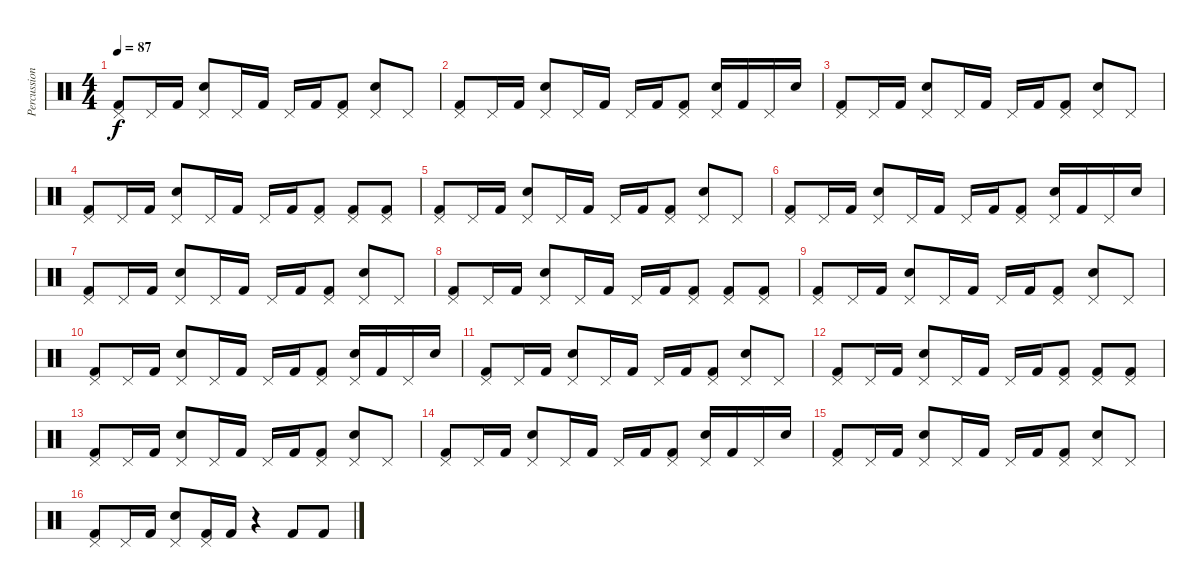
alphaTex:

\track ("Percussion" "Percussion") {instrument percussion}
\staff {score}
\articulation defaults
\ts (4 4)
\tempo 87
\clef neutral
\ks c
("Kick (hit) 2" "Pedal Hi-Hat (hit)").8{dy f} "Pedal Hi-Hat (hit)".16 "Kick (hit) 2".16 ("Snare (hit) 2" "Pedal Hi-Hat (hit)").8 "Pedal Hi-Hat (hit)".16 "Kick (hit) 2".16 "Pedal Hi-Hat (hit)".16 "Kick (hit) 2".16 ("Kick (hit) 2" "Pedal Hi-Hat (hit)").8 ("Snare (hit) 2" "Pedal Hi-Hat (hit)").8 "Pedal Hi-Hat (hit)".8 |
("Kick (hit) 2" "Pedal Hi-Hat (hit)").8 "Pedal Hi-Hat (hit)".16 "Kick (hit) 2".16 ("Snare (hit) 2" "Pedal Hi-Hat (hit)").8 "Pedal Hi-Hat (hit)".16 "Kick (hit) 2".16 "Pedal Hi-Hat (hit)".16 "Kick (hit) 2".16 ("Kick (hit) 2" "Pedal Hi-Hat (hit)").8 ("Snare (hit) 2" "Pedal Hi-Hat (hit)").16 "Kick (hit) 2".16 "Pedal Hi-Hat (hit)".16 "Snare (hit) 2".16 |
("Kick (hit) 2" "Pedal Hi-Hat (hit)").8 "Pedal Hi-Hat (hit)".16 "Kick (hit) 2".16 ("Snare (hit) 2" "Pedal Hi-Hat (hit)").8 "Pedal Hi-Hat (hit)".16 "Kick (hit) 2".16 "Pedal Hi-Hat (hit)".16 "Kick (hit) 2".16 ("Kick (hit) 2" "Pedal Hi-Hat (hit)").8 ("Snare (hit) 2" "Pedal Hi-Hat (hit)").8 "Pedal Hi-Hat (hit)".8 |
("Kick (hit) 2" "Pedal Hi-Hat (hit)").8 "Pedal Hi-Hat (hit)".16 "Kick (hit) 2".16 ("Snare (hit) 2" "Pedal Hi-Hat (hit)").8 "Pedal Hi-Hat (hit)".16 "Kick (hit) 2".16 "Pedal Hi-Hat (hit)".16 "Kick (hit) 2".16 ("Kick (hit) 2" "Pedal Hi-Hat (hit)").8 ("Kick (hit) 2" "Pedal Hi-Hat (hit)").8 ("Kick (hit) 2" "Pedal Hi-Hat (hit)").8 |
("Kick (hit) 2" "Pedal Hi-Hat (hit)").8 "Pedal Hi-Hat (hit)".16 "Kick (hit) 2".16 ("Snare (hit) 2" "Pedal Hi-Hat (hit)").8 "Pedal Hi-Hat (hit)".16 "Kick (hit) 2".16 "Pedal Hi-Hat (hit)".16 "Kick (hit) 2".16 ("Kick (hit) 2" "Pedal Hi-Hat (hit)").8 ("Snare (hit) 2" "Pedal Hi-Hat (hit)").8 "Pedal Hi-Hat (hit)".8 |
("Kick (hit) 2" "Pedal Hi-Hat (hit)").8 "Pedal Hi-Hat (hit)".16 "Kick (hit) 2".16 ("Snare (hit) 2" "Pedal Hi-Hat (hit)").8 "Pedal Hi-Hat (hit)".16 "Kick (hit) 2".16 "Pedal Hi-Hat (hit)".16 "Kick (hit) 2".16 ("Kick (hit) 2" "Pedal Hi-Hat (hit)").8 ("Snare (hit) 2" "Pedal Hi-Hat (hit)").16 "Kick (hit) 2".16 "Pedal Hi-Hat (hit)".16 "Snare (hit) 2".16 |
("Kick (hit) 2" "Pedal Hi-Hat (hit)").8 "Pedal Hi-Hat (hit)".16 "Kick (hit) 2".16 ("Snare (hit) 2" "Pedal Hi-Hat (hit)").8 "Pedal Hi-Hat (hit)".16 "Kick (hit) 2".16 "Pedal Hi-Hat (hit)".16 "Kick (hit) 2".16 ("Kick (hit) 2" "Pedal Hi-Hat (hit)").8 ("Snare (hit) 2" "Pedal Hi-Hat (hit)").8 "Pedal Hi-Hat (hit)".8 |
("Kick (hit) 2" "Pedal Hi-Hat (hit)").8 "Pedal Hi-Hat (hit)".16 "Kick (hit) 2".16 ("Snare (hit) 2" "Pedal Hi-Hat (hit)").8 "Pedal Hi-Hat (hit)".16 "Kick (hit) 2".16 "Pedal Hi-Hat (hit)".16 "Kick (hit) 2".16 ("Kick (hit) 2" "Pedal Hi-Hat (hit)").8 ("Kick (hit) 2" "Pedal Hi-Hat (hit)").8 ("Kick (hit) 2" "Pedal Hi-Hat (hit)").8 |
("Kick (hit) 2" "Pedal Hi-Hat (hit)").8 "Pedal Hi-Hat (hit)".16 "Kick (hit) 2".16 ("Snare (hit) 2" "Pedal Hi-Hat (hit)").8 "Pedal Hi-Hat (hit)".16 "Kick (hit) 2".16 "Pedal Hi-Hat (hit)".16 "Kick (hit) 2".16 ("Kick (hit) 2" "Pedal Hi-Hat (hit)").8 ("Snare (hit) 2" "Pedal Hi-Hat (hit)").8 "Pedal Hi-Hat (hit)".8 |
("Kick (hit) 2" "Pedal Hi-Hat (hit)").8 "Pedal Hi-Hat (hit)".16 "Kick (hit) 2".16 ("Snare (hit) 2" "Pedal Hi-Hat (hit)").8 "Pedal Hi-Hat (hit)".16 "Kick (hit) 2".16 "Pedal Hi-Hat (hit)".16 "Kick (hit) 2".16 ("Kick (hit) 2" "Pedal Hi-Hat (hit)").8 ("Snare (hit) 2" "Pedal Hi-Hat (hit)").16 "Kick (hit) 2".16 "Pedal Hi-Hat (hit)".16 "Snare (hit) 2".16 |
("Kick (hit) 2" "Pedal Hi-Hat (hit)").8 "Pedal Hi-Hat (hit)".16 "Kick (hit) 2".16 ("Snare (hit) 2" "Pedal Hi-Hat (hit)").8 "Pedal Hi-Hat (hit)".16 "Kick (hit) 2".16 "Pedal Hi-Hat (hit)".16 "Kick (hit) 2".16 ("Kick (hit) 2" "Pedal Hi-Hat (hit)").8 ("Snare (hit) 2" "Pedal Hi-Hat (hit)").8 "Pedal Hi-Hat (hit)".8 |
("Kick (hit) 2" "Pedal Hi-Hat (hit)").8 "Pedal Hi-Hat (hit)".16 "Kick (hit) 2".16 ("Snare (hit) 2" "Pedal Hi-Hat (hit)").8 "Pedal Hi-Hat (hit)".16 "Kick (hit) 2".16 "Pedal Hi-Hat (hit)".16 "Kick (hit) 2".16 ("Kick (hit) 2" "Pedal Hi-Hat (hit)").8 ("Kick (hit) 2" "Pedal Hi-Hat (hit)").8 ("Kick (hit) 2" "Pedal Hi-Hat (hit)").8 |
("Kick (hit) 2" "Pedal Hi-Hat (hit)").8 "Pedal Hi-Hat (hit)".16 "Kick (hit) 2".16 ("Snare (hit) 2" "Pedal Hi-Hat (hit)").8 "Pedal Hi-Hat (hit)".16 "Kick (hit) 2".16 "Pedal Hi-Hat (hit)".16 "Kick (hit) 2".16 ("Kick (hit) 2" "Pedal Hi-Hat (hit)").8 ("Snare (hit) 2" "Pedal Hi-Hat (hit)").8 "Pedal Hi-Hat (hit)".8 |
("Kick (hit) 2" "Pedal Hi-Hat (hit)").8 "Pedal Hi-Hat (hit)".16 "Kick (hit) 2".16 ("Snare (hit) 2" "Pedal Hi-Hat (hit)").8 "Pedal Hi-Hat (hit)".16 "Kick (hit) 2".16 "Pedal Hi-Hat (hit)".16 "Kick (hit) 2".16 ("Kick (hit) 2" "Pedal Hi-Hat (hit)").8 ("Snare (hit) 2" "Pedal Hi-Hat (hit)").16 "Kick (hit) 2".16 "Pedal Hi-Hat (hit)".16 "Snare (hit) 2".16 |
("Kick (hit) 2" "Pedal Hi-Hat (hit)").8 "Pedal Hi-Hat (hit)".16 "Kick (hit) 2".16 ("Snare (hit) 2" "Pedal Hi-Hat (hit)").8 "Pedal Hi-Hat (hit)".16 "Kick (hit) 2".16 "Pedal Hi-Hat (hit)".16 "Kick (hit) 2".16 ("Kick (hit) 2" "Pedal Hi-Hat (hit)").8 ("Snare (hit) 2" "Pedal Hi-Hat (hit)").8 "Pedal Hi-Hat (hit)".8 |
("Kick (hit) 2" "Pedal Hi-Hat (hit)").8 "Pedal Hi-Hat (hit)".16 "Kick (hit) 2".16 ("Snare (hit) 2" "Pedal Hi-Hat (hit)").8 ("Kick (hit) 2" "Pedal Hi-Hat (hit)").16 "Kick (hit) 2".16 r.4 "Kick (hit) 2".8 "Kick (hit) 2".8
